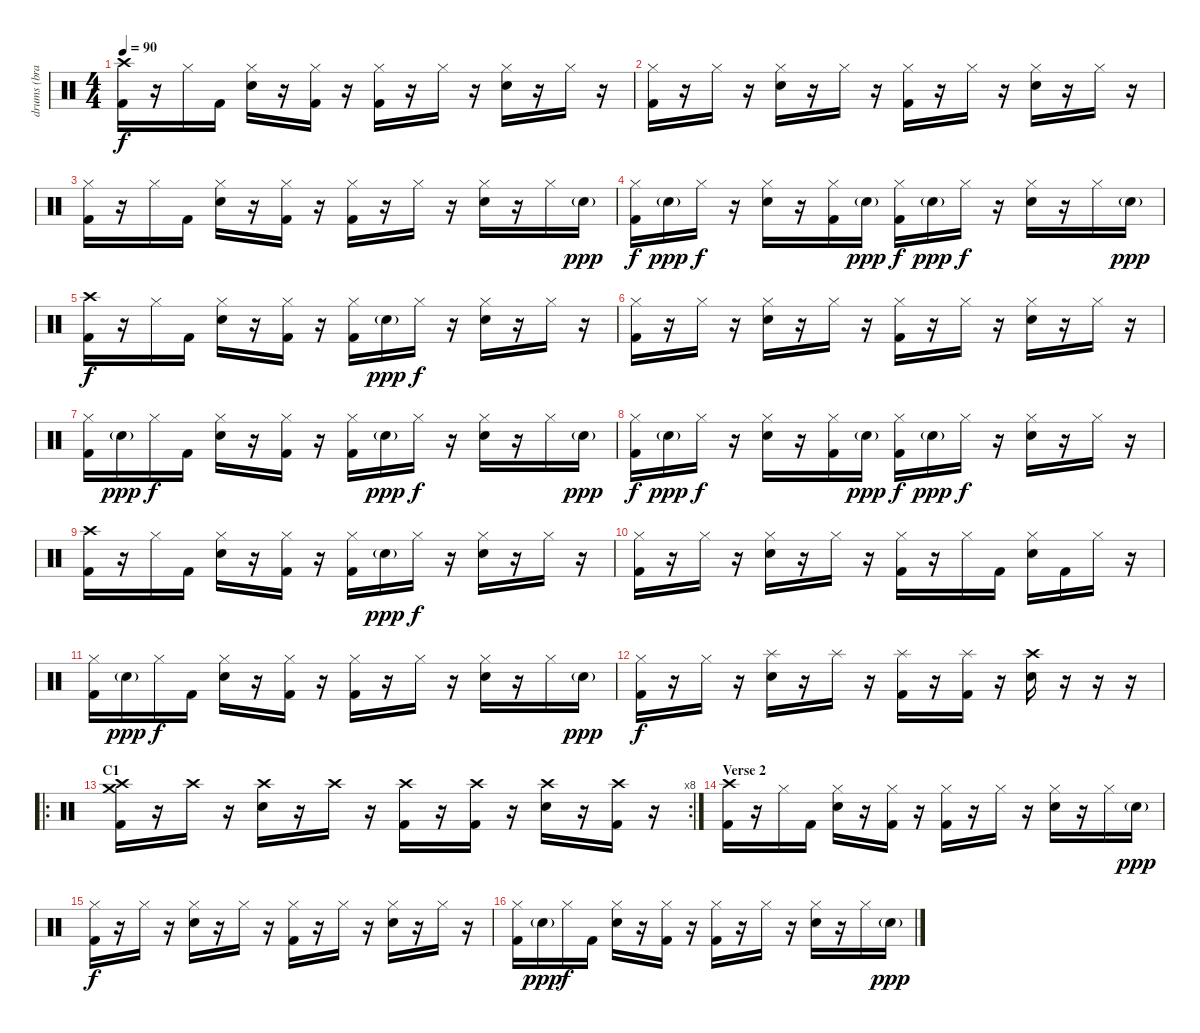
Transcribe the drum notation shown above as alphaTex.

\track ("drums (brad wilk)" "drums (bra") {instrument percussion}
\staff {score}
\articulation defaults
\ts (4 4)
\tempo 90
\clef neutral
\ks c
("Crash high (hit)" "Kick (hit) 2").16{dy f} r.16 "Hi-Hat (closed)".16 "Kick (hit) 2".16 ("Hi-Hat (closed)" "Electric Snare (hit)").16 r.16 ("Hi-Hat (closed)" "Kick (hit) 2").16 r.16 ("Hi-Hat (closed)" "Kick (hit) 2").16 r.16 "Hi-Hat (closed)".16 r.16 ("Hi-Hat (closed)" "Electric Snare (hit)").16 r.16 "Hi-Hat (closed)".16 r.16 |
("Hi-Hat (closed)" "Kick (hit) 2").16 r.16 "Hi-Hat (closed)".16 r.16 ("Hi-Hat (closed)" "Electric Snare (hit)").16 r.16 "Hi-Hat (closed)".16 r.16 ("Hi-Hat (closed)" "Kick (hit) 2").16 r.16 "Hi-Hat (closed)".16 r.16 ("Hi-Hat (closed)" "Electric Snare (hit)").16 r.16 "Hi-Hat (closed)".16 r.16 |
("Hi-Hat (closed)" "Kick (hit) 2").16 r.16 "Hi-Hat (closed)".16 "Kick (hit) 2".16 ("Hi-Hat (closed)" "Electric Snare (hit)").16 r.16 ("Hi-Hat (closed)" "Kick (hit) 2").16 r.16 ("Hi-Hat (closed)" "Kick (hit) 2").16 r.16 "Hi-Hat (closed)".16 r.16 ("Hi-Hat (closed)" "Electric Snare (hit)").16 r.16 "Hi-Hat (closed)".16 "Electric Snare (hit)"{g}.16{dy ppp} |
("Hi-Hat (closed)" "Kick (hit) 2").16{dy f} "Electric Snare (hit)"{g}.16{dy ppp} "Hi-Hat (closed)".16{dy f} r.16 ("Hi-Hat (closed)" "Electric Snare (hit)").16 r.16 ("Hi-Hat (closed)" "Kick (hit) 2").16 "Electric Snare (hit)"{g}.16{dy ppp} ("Hi-Hat (closed)" "Kick (hit) 2").16{dy f} "Electric Snare (hit)"{g}.16{dy ppp} "Hi-Hat (closed)".16{dy f} r.16 ("Hi-Hat (closed)" "Electric Snare (hit)").16 r.16 "Hi-Hat (closed)".16 "Electric Snare (hit)"{g}.16{dy ppp} |
("Crash high (hit)" "Kick (hit) 2").16{dy f} r.16 "Hi-Hat (closed)".16 "Kick (hit) 2".16 ("Hi-Hat (closed)" "Electric Snare (hit)").16 r.16 ("Hi-Hat (closed)" "Kick (hit) 2").16 r.16 ("Hi-Hat (closed)" "Kick (hit) 2").16 "Electric Snare (hit)"{g}.16{dy ppp} "Hi-Hat (closed)".16{dy f} r.16 ("Hi-Hat (closed)" "Electric Snare (hit)").16 r.16 "Hi-Hat (closed)".16 r.16 |
("Hi-Hat (closed)" "Kick (hit) 2").16 r.16 "Hi-Hat (closed)".16 r.16 ("Hi-Hat (closed)" "Electric Snare (hit)").16 r.16 "Hi-Hat (closed)".16 r.16 ("Hi-Hat (closed)" "Kick (hit) 2").16 r.16 "Hi-Hat (closed)".16 r.16 ("Hi-Hat (closed)" "Electric Snare (hit)").16 r.16 "Hi-Hat (closed)".16 r.16 |
("Hi-Hat (closed)" "Kick (hit) 2").16 "Electric Snare (hit)"{g}.16{dy ppp} "Hi-Hat (closed)".16{dy f} "Kick (hit) 2".16 ("Hi-Hat (closed)" "Electric Snare (hit)").16 r.16 ("Hi-Hat (closed)" "Kick (hit) 2").16 r.16 ("Hi-Hat (closed)" "Kick (hit) 2").16 "Electric Snare (hit)"{g}.16{dy ppp} "Hi-Hat (closed)".16{dy f} r.16 ("Hi-Hat (closed)" "Electric Snare (hit)").16 r.16 "Hi-Hat (closed)".16 "Electric Snare (hit)"{g}.16{dy ppp} |
("Hi-Hat (closed)" "Kick (hit) 2").16{dy f} "Electric Snare (hit)"{g}.16{dy ppp} "Hi-Hat (closed)".16{dy f} r.16 ("Hi-Hat (closed)" "Electric Snare (hit)").16 r.16 ("Hi-Hat (closed)" "Kick (hit) 2").16 "Electric Snare (hit)"{g}.16{dy ppp} ("Hi-Hat (closed)" "Kick (hit) 2").16{dy f} "Electric Snare (hit)"{g}.16{dy ppp} "Hi-Hat (closed)".16{dy f} r.16 ("Hi-Hat (closed)" "Electric Snare (hit)").16 r.16 "Hi-Hat (closed)".16 r.16 |
("Crash high (hit)" "Kick (hit) 2").16 r.16 "Hi-Hat (closed)".16 "Kick (hit) 2".16 ("Hi-Hat (closed)" "Electric Snare (hit)").16 r.16 ("Hi-Hat (closed)" "Kick (hit) 2").16 r.16 ("Hi-Hat (closed)" "Kick (hit) 2").16 "Electric Snare (hit)"{g}.16{dy ppp} "Hi-Hat (closed)".16{dy f} r.16 ("Hi-Hat (closed)" "Electric Snare (hit)").16 r.16 "Hi-Hat (closed)".16 r.16 |
("Hi-Hat (closed)" "Kick (hit) 2").16 r.16 "Hi-Hat (closed)".16 r.16 ("Hi-Hat (closed)" "Electric Snare (hit)").16 r.16 "Hi-Hat (closed)".16 r.16 ("Hi-Hat (closed)" "Kick (hit) 2").16 r.16 "Hi-Hat (closed)".16 "Kick (hit) 2".16 ("Hi-Hat (closed)" "Electric Snare (hit)").16 "Kick (hit) 2".16 "Hi-Hat (closed)".16 r.16 |
("Hi-Hat (closed)" "Kick (hit) 2").16 "Electric Snare (hit)"{g}.16{dy ppp} "Hi-Hat (closed)".16{dy f} "Kick (hit) 2".16 ("Hi-Hat (closed)" "Electric Snare (hit)").16 r.16 ("Hi-Hat (closed)" "Kick (hit) 2").16 r.16 ("Hi-Hat (closed)" "Kick (hit) 2").16 r.16 "Hi-Hat (closed)".16 r.16 ("Hi-Hat (closed)" "Electric Snare (hit)").16 r.16 "Hi-Hat (closed)".16 "Electric Snare (hit)"{g}.16{dy ppp} |
("Hi-Hat (closed)" "Kick (hit) 2").16{dy f} r.16 "Hi-Hat (closed)".16 r.16 ("Splash (hit)" "Electric Snare (hit)").16 r.16 "Splash (hit)".16 r.16 ("Splash (hit)" "Kick (hit) 2").16 r.16 ("Splash (hit)" "Kick (hit) 2").16 r.16 ("Crash high (hit)" "Electric Snare (hit)").16 r.16 r.16 r.16 |
\ro
\rc 8
\section ("" "C1")
("Crash medium (hit)" "Crash high (hit)" "Kick (hit) 2").16 r.16 "Crash high (hit)".16 r.16 ("Crash high (hit)" "Electric Snare (hit)").16 r.16 "Crash high (hit)".16 r.16 ("Crash high (hit)" "Kick (hit) 2").16 r.16 ("Crash high (hit)" "Kick (hit) 2").16 r.16 ("Crash high (hit)" "Electric Snare (hit)").16 r.16 ("Crash high (hit)" "Kick (hit) 2").16 r.16 |
\section ("" "Verse 2")
("Crash high (hit)" "Kick (hit) 2").16 r.16 "Hi-Hat (closed)".16 "Kick (hit) 2".16 ("Hi-Hat (closed)" "Electric Snare (hit)").16 r.16 ("Hi-Hat (closed)" "Kick (hit) 2").16 r.16 ("Hi-Hat (closed)" "Kick (hit) 2").16 r.16 "Hi-Hat (closed)".16 r.16 ("Hi-Hat (closed)" "Electric Snare (hit)").16 r.16 "Hi-Hat (closed)".16 "Electric Snare (hit)"{g}.16{dy ppp} |
("Hi-Hat (closed)" "Kick (hit) 2").16{dy f} r.16 "Hi-Hat (closed)".16 r.16 ("Hi-Hat (closed)" "Electric Snare (hit)").16 r.16 "Hi-Hat (closed)".16 r.16 ("Hi-Hat (closed)" "Kick (hit) 2").16 r.16 "Hi-Hat (closed)".16 r.16 ("Hi-Hat (closed)" "Electric Snare (hit)").16 r.16 "Hi-Hat (closed)".16 r.16 |
("Hi-Hat (closed)" "Kick (hit) 2").16 "Electric Snare (hit)"{g}.16{dy ppp} "Hi-Hat (closed)".16{dy f} "Kick (hit) 2".16 ("Hi-Hat (closed)" "Electric Snare (hit)").16 r.16 ("Hi-Hat (closed)" "Kick (hit) 2").16 r.16 ("Hi-Hat (closed)" "Kick (hit) 2").16 r.16 "Hi-Hat (closed)".16 r.16 ("Hi-Hat (closed)" "Electric Snare (hit)").16 r.16 "Hi-Hat (closed)".16 "Electric Snare (hit)"{g}.16{dy ppp}
